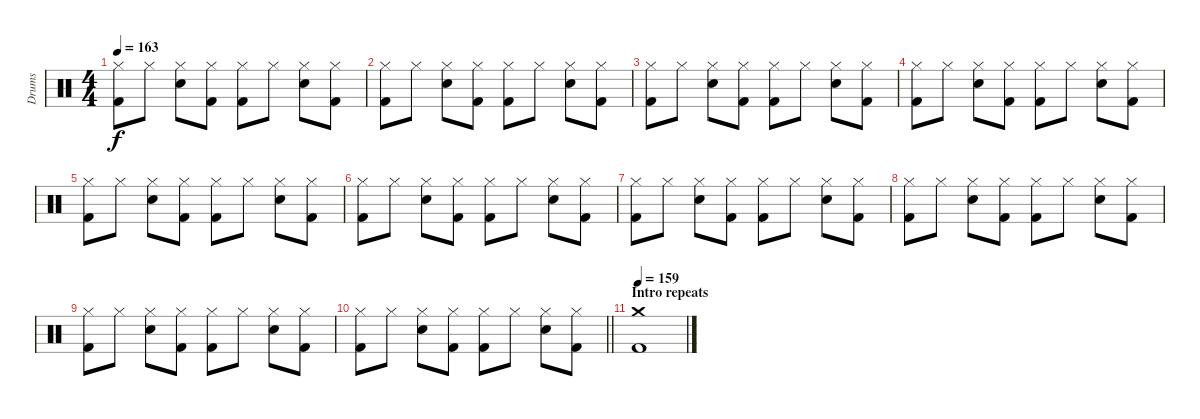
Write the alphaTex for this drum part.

\track ("Drums" "Drums") {instrument percussion}
\staff {score}
\articulation defaults
\ts (4 4)
\tempo 163
\clef neutral
\ks c
("Hi-Hat (closed)" "Kick (hit) 2").8{dy f} "Hi-Hat (closed)".8 ("Hi-Hat (closed)" "Snare (hit) 2").8 ("Hi-Hat (closed)" "Kick (hit) 2").8 ("Hi-Hat (closed)" "Kick (hit) 2").8 "Hi-Hat (closed)".8 ("Hi-Hat (closed)" "Snare (hit) 2").8 ("Hi-Hat (closed)" "Kick (hit) 2").8 |
("Hi-Hat (closed)" "Kick (hit) 2").8 "Hi-Hat (closed)".8 ("Hi-Hat (closed)" "Snare (hit) 2").8 ("Hi-Hat (closed)" "Kick (hit) 2").8 ("Hi-Hat (closed)" "Kick (hit) 2").8 "Hi-Hat (closed)".8 ("Hi-Hat (closed)" "Snare (hit) 2").8 ("Hi-Hat (closed)" "Kick (hit) 2").8 |
("Hi-Hat (closed)" "Kick (hit) 2").8 "Hi-Hat (closed)".8 ("Hi-Hat (closed)" "Snare (hit) 2").8 ("Hi-Hat (closed)" "Kick (hit) 2").8 ("Hi-Hat (closed)" "Kick (hit) 2").8 "Hi-Hat (closed)".8 ("Hi-Hat (closed)" "Snare (hit) 2").8 ("Hi-Hat (closed)" "Kick (hit) 2").8 |
("Hi-Hat (closed)" "Kick (hit) 2").8 "Hi-Hat (closed)".8 ("Hi-Hat (closed)" "Snare (hit) 2").8 ("Hi-Hat (closed)" "Kick (hit) 2").8 ("Hi-Hat (closed)" "Kick (hit) 2").8 "Hi-Hat (closed)".8 ("Hi-Hat (closed)" "Snare (hit) 2").8 ("Hi-Hat (closed)" "Kick (hit) 2").8 |
("Hi-Hat (closed)" "Kick (hit) 2").8 "Hi-Hat (closed)".8 ("Hi-Hat (closed)" "Snare (hit) 2").8 ("Hi-Hat (closed)" "Kick (hit) 2").8 ("Hi-Hat (closed)" "Kick (hit) 2").8 "Hi-Hat (closed)".8 ("Hi-Hat (closed)" "Snare (hit) 2").8 ("Hi-Hat (closed)" "Kick (hit) 2").8 |
("Hi-Hat (closed)" "Kick (hit) 2").8 "Hi-Hat (closed)".8 ("Hi-Hat (closed)" "Snare (hit) 2").8 ("Hi-Hat (closed)" "Kick (hit) 2").8 ("Hi-Hat (closed)" "Kick (hit) 2").8 "Hi-Hat (closed)".8 ("Hi-Hat (closed)" "Snare (hit) 2").8 ("Hi-Hat (closed)" "Kick (hit) 2").8 |
("Hi-Hat (closed)" "Kick (hit) 2").8 "Hi-Hat (closed)".8 ("Hi-Hat (closed)" "Snare (hit) 2").8 ("Hi-Hat (closed)" "Kick (hit) 2").8 ("Hi-Hat (closed)" "Kick (hit) 2").8 "Hi-Hat (closed)".8 ("Hi-Hat (closed)" "Snare (hit) 2").8 ("Hi-Hat (closed)" "Kick (hit) 2").8 |
("Hi-Hat (closed)" "Kick (hit) 2").8 "Hi-Hat (closed)".8 ("Hi-Hat (closed)" "Snare (hit) 2").8 ("Hi-Hat (closed)" "Kick (hit) 2").8 ("Hi-Hat (closed)" "Kick (hit) 2").8 "Hi-Hat (closed)".8 ("Hi-Hat (closed)" "Snare (hit) 2").8 ("Hi-Hat (closed)" "Kick (hit) 2").8 |
("Hi-Hat (closed)" "Kick (hit) 2").8 "Hi-Hat (closed)".8 ("Hi-Hat (closed)" "Snare (hit) 2").8 ("Hi-Hat (closed)" "Kick (hit) 2").8 ("Hi-Hat (closed)" "Kick (hit) 2").8 "Hi-Hat (closed)".8 ("Hi-Hat (closed)" "Snare (hit) 2").8 ("Hi-Hat (closed)" "Kick (hit) 2").8 |
\barLineRight lightlight
("Hi-Hat (closed)" "Kick (hit) 2").8 "Hi-Hat (closed)".8 ("Hi-Hat (closed)" "Snare (hit) 2").8 ("Hi-Hat (closed)" "Kick (hit) 2").8 ("Hi-Hat (closed)" "Kick (hit) 2").8 "Hi-Hat (closed)".8 ("Hi-Hat (closed)" "Snare (hit) 2").8 ("Hi-Hat (closed)" "Kick (hit) 2").8 |
\section ("" "Intro repeats")
\tempo 159
("Crash medium (hit)" "Kick (hit) 2").1
